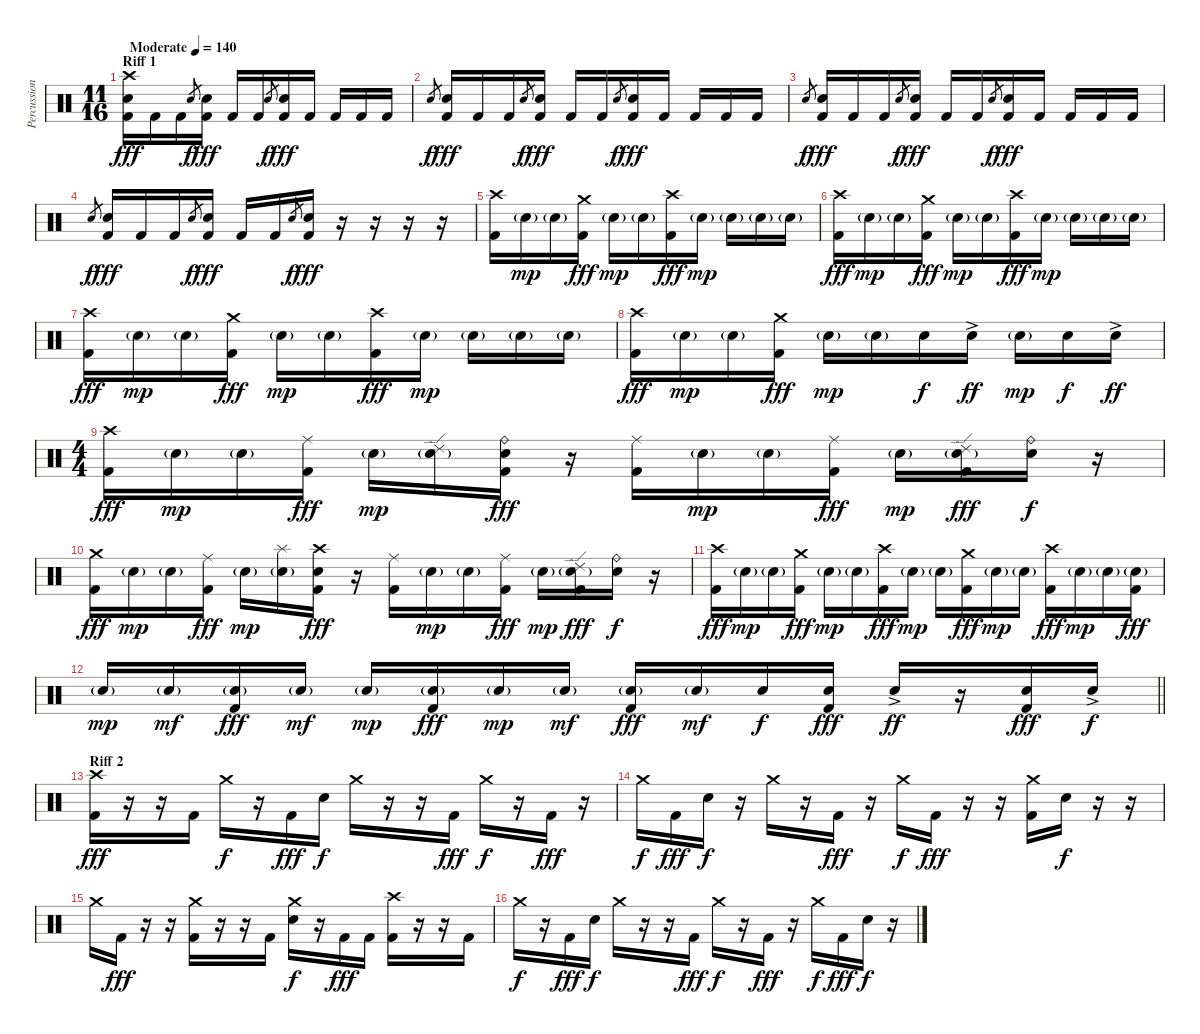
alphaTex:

\track ("Percussion" "Percussion") {instrument percussion}
\staff {score}
\articulation defaults
\ts (11 16)
\section ("" "Riff 1")
\tempo (140 "Moderate")
\clef neutral
\ks c
("Crash high (hit)" "Electric Snare (hit)" "Kick (hit) 2").16{dy fff} "Kick (hit) 2".16 "Kick (hit) 2".16 "Electric Snare (hit)".8{gr dy f} ("Electric Snare (hit)" "Kick (hit) 2").16{dy fff} "Kick (hit) 2".16 "Kick (hit) 2".16 "Electric Snare (hit)".8{gr dy f} ("Electric Snare (hit)" "Kick (hit) 2").16{dy fff} "Kick (hit) 2".16 "Kick (hit) 2".16 "Kick (hit) 2".16 "Kick (hit) 2".16 |
"Electric Snare (hit)".8{gr dy f} ("Electric Snare (hit)" "Kick (hit) 2").16{dy fff} "Kick (hit) 2".16 "Kick (hit) 2".16 "Electric Snare (hit)".8{gr dy f} ("Electric Snare (hit)" "Kick (hit) 2").16{dy fff} "Kick (hit) 2".16 "Kick (hit) 2".16 "Electric Snare (hit)".8{gr dy f} ("Electric Snare (hit)" "Kick (hit) 2").16{dy fff} "Kick (hit) 2".16 "Kick (hit) 2".16 "Kick (hit) 2".16 "Kick (hit) 2".16 |
"Electric Snare (hit)".8{gr dy f} ("Electric Snare (hit)" "Kick (hit) 2").16{dy fff} "Kick (hit) 2".16 "Kick (hit) 2".16 "Electric Snare (hit)".8{gr dy f} ("Electric Snare (hit)" "Kick (hit) 2").16{dy fff} "Kick (hit) 2".16 "Kick (hit) 2".16 "Electric Snare (hit)".8{gr dy f} ("Electric Snare (hit)" "Kick (hit) 2").16{dy fff} "Kick (hit) 2".16 "Kick (hit) 2".16 "Kick (hit) 2".16 "Kick (hit) 2".16 |
"Electric Snare (hit)".8{gr dy f} ("Electric Snare (hit)" "Kick (hit) 2").16{dy fff} "Kick (hit) 2".16 "Kick (hit) 2".16 "Electric Snare (hit)".8{gr dy f} ("Electric Snare (hit)" "Kick (hit) 2").16{dy fff} "Kick (hit) 2".16 "Kick (hit) 2".16 "Electric Snare (hit)".8{gr dy f} ("Electric Snare (hit)" "Kick (hit) 2").16{dy fff} r.16 r.16 r.16 r.16 |
("Crash high (hit)" "Kick (hit) 2").16 "Electric Snare (hit)"{g}.16{dy mp} "Electric Snare (hit)"{g}.16 ("Crash medium (hit)" "Kick (hit) 2").16{dy fff} "Electric Snare (hit)"{g}.16{dy mp} "Electric Snare (hit)"{g}.16 ("Crash high (hit)" "Kick (hit) 2").16{dy fff} "Electric Snare (hit)"{g}.16{dy mp} "Electric Snare (hit)"{g}.16 "Electric Snare (hit)"{g}.16 "Electric Snare (hit)"{g}.16 |
("Crash high (hit)" "Kick (hit) 2").16{dy fff} "Electric Snare (hit)"{g}.16{dy mp} "Electric Snare (hit)"{g}.16 ("Crash medium (hit)" "Kick (hit) 2").16{dy fff} "Electric Snare (hit)"{g}.16{dy mp} "Electric Snare (hit)"{g}.16 ("Crash high (hit)" "Kick (hit) 2").16{dy fff} "Electric Snare (hit)"{g}.16{dy mp} "Electric Snare (hit)"{g}.16 "Electric Snare (hit)"{g}.16 "Electric Snare (hit)"{g}.16 |
("Crash high (hit)" "Kick (hit) 2").16{dy fff} "Electric Snare (hit)"{g}.16{dy mp} "Electric Snare (hit)"{g}.16 ("Crash medium (hit)" "Kick (hit) 2").16{dy fff} "Electric Snare (hit)"{g}.16{dy mp} "Electric Snare (hit)"{g}.16 ("Crash high (hit)" "Kick (hit) 2").16{dy fff} "Electric Snare (hit)"{g}.16{dy mp} "Electric Snare (hit)"{g}.16 "Electric Snare (hit)"{g}.16 "Electric Snare (hit)"{g}.16 |
("Crash high (hit)" "Kick (hit) 2").16{dy fff} "Electric Snare (hit)"{g}.16{dy mp} "Electric Snare (hit)"{g}.16 ("Crash medium (hit)" "Kick (hit) 2").16{dy fff} "Electric Snare (hit)"{g}.16{dy mp} "Electric Snare (hit)"{g}.16 "Electric Snare (hit)".16{dy f} "Electric Snare (hit)"{ac}.16{dy ff} "Electric Snare (hit)"{g}.16{dy mp} "Electric Snare (hit)".16{dy f} "Electric Snare (hit)"{ac}.16{dy ff} |
\ts (4 4)
("Crash high (hit)" "Kick (hit) 2").16{dy fff} "Electric Snare (hit)"{g}.16{dy mp} "Electric Snare (hit)"{g}.16 ("Ride (middle)" "Kick (hit) 2").16{dy fff} "Electric Snare (hit)"{g}.16{dy mp} ("Ride (edge) 2" "Electric Snare (hit)"{g}).16 ("Ride (bell)" "Electric Snare (hit)" "Kick (hit) 2").16{dy fff} r.16 ("Ride (middle)" "Kick (hit) 2").16 "Electric Snare (hit)"{g}.16{dy mp} "Electric Snare (hit)"{g}.16 ("Ride (middle)" "Kick (hit) 2").16{dy fff} "Electric Snare (hit)"{g}.16{dy mp} ("Ride (edge) 2" "Electric Snare (hit)"{g} "Kick (hit) 2").16{dy fff} ("Ride (bell)" "Electric Snare (hit)").16{dy f} r.16 |
("Crash medium (hit)" "Kick (hit) 2").16{dy fff} "Electric Snare (hit)"{g}.16{dy mp} "Electric Snare (hit)"{g}.16 ("Ride (middle)" "Kick (hit) 2").16{dy fff} "Electric Snare (hit)"{g}.16{dy mp} ("Splash (hit)" "Electric Snare (hit)"{g}).16 ("Crash high (hit)" "Electric Snare (hit)" "Kick (hit) 2").16{dy fff} r.16 ("Ride (middle)" "Kick (hit) 2").16 "Electric Snare (hit)"{g}.16{dy mp} "Electric Snare (hit)"{g}.16 ("Ride (middle)" "Kick (hit) 2").16{dy fff} "Electric Snare (hit)"{g}.16{dy mp} ("Ride (edge) 2" "Electric Snare (hit)"{g} "Kick (hit) 2").16{dy fff} ("Ride (bell)" "Electric Snare (hit)").16{dy f} r.16 |
("Crash high (hit)" "Kick (hit) 2").16{dy fff} "Electric Snare (hit)"{g}.16{dy mp} "Electric Snare (hit)"{g}.16 ("Crash medium (hit)" "Kick (hit) 2").16{dy fff} "Electric Snare (hit)"{g}.16{dy mp} "Electric Snare (hit)"{g}.16 ("Crash high (hit)" "Kick (hit) 2").16{dy fff} "Electric Snare (hit)"{g}.16{dy mp} "Electric Snare (hit)"{g}.16 ("Crash medium (hit)" "Kick (hit) 2").16{dy fff} "Electric Snare (hit)"{g}.16{dy mp} "Electric Snare (hit)"{g}.16 ("Crash high (hit)" "Kick (hit) 2").16{dy fff} "Electric Snare (hit)"{g}.16{dy mp} "Electric Snare (hit)"{g}.16 ("Electric Snare (hit)"{g} "Kick (hit) 2").16{dy fff} |
\barLineRight lightlight "Electric Snare (hit)"{g}.16{dy mp} "Electric Snare (hit)"{g}.16{dy mf}
("Electric Snare (hit)"{g} "Kick (hit) 2").16{dy fff} "Electric Snare (hit)"{g}.16{dy mf} "Electric Snare (hit)"{g}.16{dy mp} ("Electric Snare (hit)"{g} "Kick (hit) 2").16{dy fff} "Electric Snare (hit)"{g}.16{dy mp} "Electric Snare (hit)"{g}.16{dy mf} ("Electric Snare (hit)"{g} "Kick (hit) 2").16{dy fff} "Electric Snare (hit)"{g}.16{dy mf} "Electric Snare (hit)".16{dy f} ("Electric Snare (hit)" "Kick (hit) 2").16{dy fff} "Electric Snare (hit)"{ac}.16{dy ff} r.16 ("Electric Snare (hit)" "Kick (hit) 2").16{dy fff} "Electric Snare (hit)"{ac}.16{dy f} |
\section ("" "Riff 2")
("Crash high (hit)" "Kick (hit) 2").16{dy fff} r.16 r.16 "Kick (hit) 2".16 "Crash medium (hit)".16{dy f} r.16 "Kick (hit) 2".16{dy fff} "Electric Snare (hit)".16{dy f} "Crash medium (hit)".16 r.16 r.16 "Kick (hit) 2".16{dy fff} "Crash medium (hit)".16{dy f} r.16 "Kick (hit) 2".16{dy fff} r.16 |
"Crash medium (hit)".16{dy f} "Kick (hit) 2".16{dy fff} "Electric Snare (hit)".16{dy f} r.16 "Crash medium (hit)".16 r.16 "Kick (hit) 2".16{dy fff} r.16 "Crash medium (hit)".16{dy f} "Kick (hit) 2".16{dy fff} r.16 r.16 ("Crash medium (hit)" "Kick (hit) 2").16 "Electric Snare (hit)".16{dy f} r.16 r.16 |
"Crash medium (hit)".16 "Kick (hit) 2".16{dy fff} r.16 r.16 ("Crash medium (hit)" "Kick (hit) 2").16 r.16 r.16 "Kick (hit) 2".16 ("Crash medium (hit)" "Electric Snare (hit)").16{dy f} r.16 "Kick (hit) 2".16{dy fff} "Kick (hit) 2".16 ("Crash high (hit)" "Kick (hit) 2").16 r.16 r.16 "Kick (hit) 2".16 |
"Crash medium (hit)".16{dy f} r.16 "Kick (hit) 2".16{dy fff} "Electric Snare (hit)".16{dy f} "Crash medium (hit)".16 r.16 r.16 "Kick (hit) 2".16{dy fff} "Crash medium (hit)".16{dy f} r.16 "Kick (hit) 2".16{dy fff} r.16 "Crash medium (hit)".16{dy f} "Kick (hit) 2".16{dy fff} "Electric Snare (hit)".16{dy f} r.16
